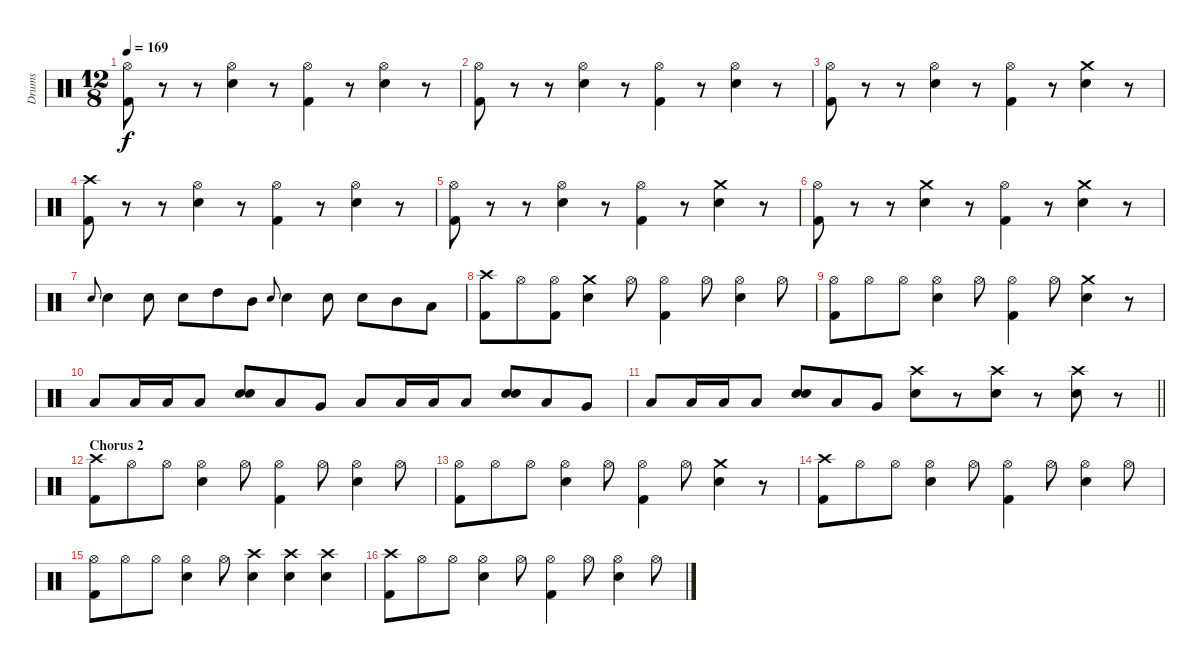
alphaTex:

\track ("Drums" "Drums") {instrument percussion}
\staff {score}
\articulation defaults
\ts (12 8)
\tempo 169
\clef neutral
\ks c
("Kick (hit) 2" "Hi-Hat (open)").8{dy f} r.8 r.8 ("Snare (hit) 2" "Hi-Hat (open)").4 r.8 ("Kick (hit) 2" "Hi-Hat (open)").4 r.8 ("Snare (hit) 2" "Hi-Hat (open)").4 r.8 |
("Kick (hit) 2" "Hi-Hat (open)").8 r.8 r.8 ("Snare (hit) 2" "Hi-Hat (open)").4 r.8 ("Kick (hit) 2" "Hi-Hat (open)").4 r.8 ("Snare (hit) 2" "Hi-Hat (open)").4 r.8 |
("Kick (hit) 2" "Hi-Hat (open)").8 r.8 r.8 ("Snare (hit) 2" "Hi-Hat (open)").4 r.8 ("Kick (hit) 2" "Hi-Hat (open)").4 r.8 ("Snare (hit) 2" "Crash medium (hit)").4 r.8 |
("Kick (hit) 2" "Crash high (hit)").8 r.8 r.8 ("Snare (hit) 2" "Hi-Hat (open)").4 r.8 ("Kick (hit) 2" "Hi-Hat (open)").4 r.8 ("Snare (hit) 2" "Hi-Hat (open)").4 r.8 |
("Kick (hit) 2" "Hi-Hat (open)").8 r.8 r.8 ("Snare (hit) 2" "Hi-Hat (open)").4 r.8 ("Kick (hit) 2" "Hi-Hat (open)").4 r.8 ("Snare (hit) 2" "Crash medium (hit)").4 r.8 |
("Kick (hit) 2" "Hi-Hat (open)").8 r.8 r.8 ("Snare (hit) 2" "Crash medium (hit)").4 r.8 ("Kick (hit) 2" "Hi-Hat (open)").4 r.8 ("Snare (hit) 2" "Crash medium (hit)").4 r.8 |
"Snare (hit) 2".8{gr onbeat} "Snare (hit) 2".4 "Snare (hit) 2".8 "Snare (hit) 2".8 "High Tom (hit)".8 "Mid Tom (hit)".8 "Snare (hit) 2".8{gr onbeat} "Snare (hit) 2".4 "Snare (hit) 2".8 "Snare (hit) 2".8 "Mid Tom (hit)".8 "Low Tom (hit)".8 |
("Kick (hit) 2" "Crash high (hit)").8 "Hi-Hat (open)".8 ("Kick (hit) 2" "Hi-Hat (open)").8 ("Snare (hit) 2" "Crash medium (hit)").4 "Hi-Hat (open)".8 ("Kick (hit) 2" "Hi-Hat (open)").4 "Hi-Hat (open)".8 ("Snare (hit) 2" "Hi-Hat (open)").4 "Hi-Hat (open)".8 |
("Kick (hit) 2" "Hi-Hat (open)").8 "Hi-Hat (open)".8 "Hi-Hat (open)".8 ("Snare (hit) 2" "Hi-Hat (open)").4 "Hi-Hat (open)".8 ("Kick (hit) 2" "Hi-Hat (open)").4 "Hi-Hat (open)".8 ("Snare (hit) 2" "Crash medium (hit)").4 r.8 |
"Low Tom (hit)".8 "Low Tom (hit)".16 "Low Tom (hit)".16 "Low Tom (hit)".8 ("Snare (hit) 2" "Snare (hit) 2").8 "Low Tom (hit)".8 "Very Low Tom (hit)".8 "Low Tom (hit)".8 "Low Tom (hit)".16 "Low Tom (hit)".16 "Low Tom (hit)".8 ("Snare (hit) 2" "Snare (hit) 2").8 "Low Tom (hit)".8 "Very Low Tom (hit)".8 |
\barLineRight lightlight "Low Tom (hit)".8 "Low Tom (hit)".16 "Low Tom (hit)".16 "Low Tom (hit)".8
("Snare (hit) 2" "Snare (hit) 2").8 "Low Tom (hit)".8 "Very Low Tom (hit)".8 ("Crash high (hit)" "Snare (hit) 2").8 r.8 ("Crash high (hit)" "Snare (hit) 2").8 r.8 ("Crash high (hit)" "Snare (hit) 2").8 r.8 |
\section ("" "Chorus 2")
("Kick (hit) 2" "Crash high (hit)").8 "Hi-Hat (open)".8 "Hi-Hat (open)".8 ("Snare (hit) 2" "Hi-Hat (open)").4 "Hi-Hat (open)".8 ("Kick (hit) 2" "Hi-Hat (open)").4 "Hi-Hat (open)".8 ("Snare (hit) 2" "Hi-Hat (open)").4 "Hi-Hat (open)".8 |
("Kick (hit) 2" "Hi-Hat (open)").8 "Hi-Hat (open)".8 "Hi-Hat (open)".8 ("Snare (hit) 2" "Hi-Hat (open)").4 "Hi-Hat (open)".8 ("Kick (hit) 2" "Hi-Hat (open)").4 "Hi-Hat (open)".8 ("Snare (hit) 2" "Crash medium (hit)").4 r.8 |
("Kick (hit) 2" "Crash high (hit)").8 "Hi-Hat (open)".8 "Hi-Hat (open)".8 ("Snare (hit) 2" "Hi-Hat (open)").4 "Hi-Hat (open)".8 ("Kick (hit) 2" "Hi-Hat (open)").4 "Hi-Hat (open)".8 ("Snare (hit) 2" "Hi-Hat (open)").4 "Hi-Hat (open)".8 |
("Kick (hit) 2" "Hi-Hat (open)").8 "Hi-Hat (open)".8 "Hi-Hat (open)".8 ("Snare (hit) 2" "Hi-Hat (open)").4 "Hi-Hat (open)".8 ("Snare (hit) 2" "Crash high (hit)").4 ("Snare (hit) 2" "Crash high (hit)").4 ("Snare (hit) 2" "Crash high (hit)").4 |
("Kick (hit) 2" "Crash high (hit)").8 "Hi-Hat (open)".8 "Hi-Hat (open)".8 ("Snare (hit) 2" "Hi-Hat (open)").4 "Hi-Hat (open)".8 ("Kick (hit) 2" "Hi-Hat (open)").4 "Hi-Hat (open)".8 ("Snare (hit) 2" "Hi-Hat (open)").4 "Hi-Hat (open)".8
